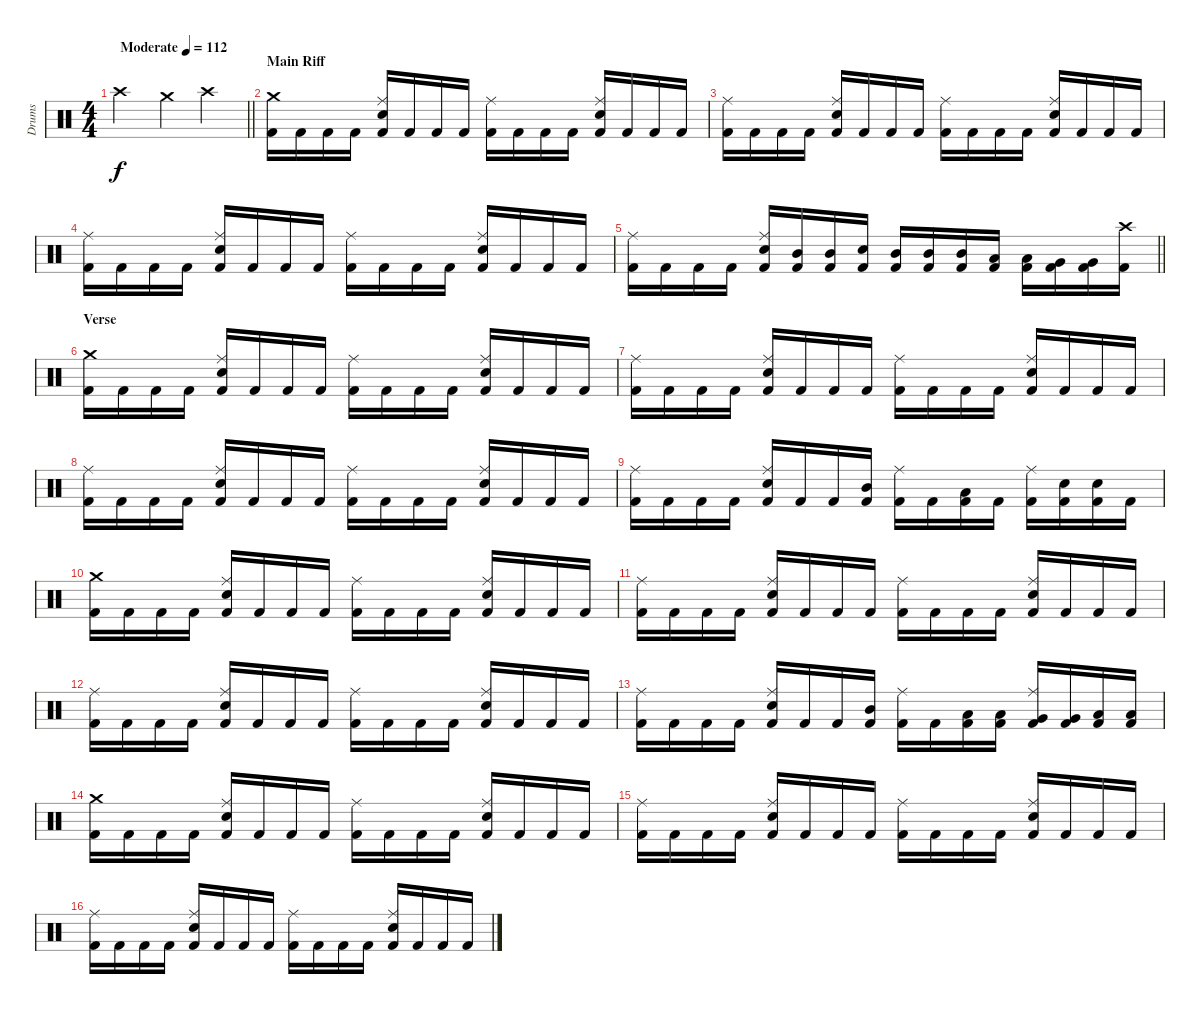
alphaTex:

\track ("Drums" "Drums") {instrument percussion}
\staff {score}
\articulation defaults
\ts (4 4)
\tempo (112 "Moderate")
\clef neutral
\barLineRight lightlight
\ks c "Crash high (hit)".2{dy f} "Crash medium (hit)".4 "Crash high (hit)".4
|
\section ("" "Main Riff")
("Crash medium (hit)" "Kick (hit) 2").16 "Kick (hit) 2".16 "Kick (hit) 2".16 "Kick (hit) 2".16 ("Ride (middle)" "Electric Snare (hit)" "Kick (hit) 2").16 "Kick (hit) 2".16 "Kick (hit) 2".16 "Kick (hit) 2".16 ("Ride (middle)" "Kick (hit) 2").16 "Kick (hit) 2".16 "Kick (hit) 2".16 "Kick (hit) 2".16 ("Ride (middle)" "Electric Snare (hit)" "Kick (hit) 2").16 "Kick (hit) 2".16 "Kick (hit) 2".16 "Kick (hit) 2".16 |
("Ride (middle)" "Kick (hit) 2").16 "Kick (hit) 2".16 "Kick (hit) 2".16 "Kick (hit) 2".16 ("Ride (middle)" "Electric Snare (hit)" "Kick (hit) 2").16 "Kick (hit) 2".16 "Kick (hit) 2".16 "Kick (hit) 2".16 ("Ride (middle)" "Kick (hit) 2").16 "Kick (hit) 2".16 "Kick (hit) 2".16 "Kick (hit) 2".16 ("Ride (middle)" "Electric Snare (hit)" "Kick (hit) 2").16 "Kick (hit) 2".16 "Kick (hit) 2".16 "Kick (hit) 2".16 |
("Ride (middle)" "Kick (hit) 2").16 "Kick (hit) 2".16 "Kick (hit) 2".16 "Kick (hit) 2".16 ("Ride (middle)" "Electric Snare (hit)" "Kick (hit) 2").16 "Kick (hit) 2".16 "Kick (hit) 2".16 "Kick (hit) 2".16 ("Ride (middle)" "Kick (hit) 2").16 "Kick (hit) 2".16 "Kick (hit) 2".16 "Kick (hit) 2".16 ("Ride (middle)" "Electric Snare (hit)" "Kick (hit) 2").16 "Kick (hit) 2".16 "Kick (hit) 2".16 "Kick (hit) 2".16 |
\barLineRight lightlight
("Ride (middle)" "Kick (hit) 2").16 "Kick (hit) 2".16 "Kick (hit) 2".16 "Kick (hit) 2".16 ("Ride (middle)" "Electric Snare (hit)" "Kick (hit) 2").16 ("Mid Tom (hit)" "Kick (hit) 2").16 ("Mid Tom (hit)" "Kick (hit) 2").16 ("Electric Snare (hit)" "Kick (hit) 2").16 ("Mid Tom (hit)" "Kick (hit) 2").16 ("Mid Tom (hit)" "Kick (hit) 2").16 ("Mid Tom (hit)" "Kick (hit) 2").16 ("Low Tom (hit)" "Kick (hit) 2").16 ("Low Tom (hit)" "Kick (hit) 2").16 ("Very Low Tom (hit)" "Kick (hit) 2").16 ("Very Low Tom (hit)" "Kick (hit) 2").16 ("Crash high (hit)" "Kick (hit) 2").16 |
\section ("" "Verse")
("Crash medium (hit)" "Kick (hit) 2").16 "Kick (hit) 2".16 "Kick (hit) 2".16 "Kick (hit) 2".16 ("Ride (middle)" "Electric Snare (hit)" "Kick (hit) 2").16 "Kick (hit) 2".16 "Kick (hit) 2".16 "Kick (hit) 2".16 ("Ride (middle)" "Kick (hit) 2").16 "Kick (hit) 2".16 "Kick (hit) 2".16 "Kick (hit) 2".16 ("Ride (middle)" "Electric Snare (hit)" "Kick (hit) 2").16 "Kick (hit) 2".16 "Kick (hit) 2".16 "Kick (hit) 2".16 |
("Ride (middle)" "Kick (hit) 2").16 "Kick (hit) 2".16 "Kick (hit) 2".16 "Kick (hit) 2".16 ("Ride (middle)" "Electric Snare (hit)" "Kick (hit) 2").16 "Kick (hit) 2".16 "Kick (hit) 2".16 "Kick (hit) 2".16 ("Ride (middle)" "Kick (hit) 2").16 "Kick (hit) 2".16 "Kick (hit) 2".16 "Kick (hit) 2".16 ("Ride (middle)" "Electric Snare (hit)" "Kick (hit) 2").16 "Kick (hit) 2".16 "Kick (hit) 2".16 "Kick (hit) 2".16 |
("Ride (middle)" "Kick (hit) 2").16 "Kick (hit) 2".16 "Kick (hit) 2".16 "Kick (hit) 2".16 ("Ride (middle)" "Electric Snare (hit)" "Kick (hit) 2").16 "Kick (hit) 2".16 "Kick (hit) 2".16 "Kick (hit) 2".16 ("Ride (middle)" "Kick (hit) 2").16 "Kick (hit) 2".16 "Kick (hit) 2".16 "Kick (hit) 2".16 ("Ride (middle)" "Electric Snare (hit)" "Kick (hit) 2").16 "Kick (hit) 2".16 "Kick (hit) 2".16 "Kick (hit) 2".16 |
("Ride (middle)" "Kick (hit) 2").16 "Kick (hit) 2".16 "Kick (hit) 2".16 "Kick (hit) 2".16 ("Ride (middle)" "Electric Snare (hit)" "Kick (hit) 2").16 "Kick (hit) 2".16 "Kick (hit) 2".16 ("Mid Tom (hit)" "Kick (hit) 2").16 ("Ride (middle)" "Kick (hit) 2").16 "Kick (hit) 2".16 ("Low Tom (hit)" "Kick (hit) 2").16 "Kick (hit) 2".16 ("Ride (middle)" "Kick (hit) 2").16 ("Electric Snare (hit)" "Kick (hit) 2").16 ("Electric Snare (hit)" "Kick (hit) 2").16 "Kick (hit) 2".16 |
("Crash medium (hit)" "Kick (hit) 2").16 "Kick (hit) 2".16 "Kick (hit) 2".16 "Kick (hit) 2".16 ("Ride (middle)" "Electric Snare (hit)" "Kick (hit) 2").16 "Kick (hit) 2".16 "Kick (hit) 2".16 "Kick (hit) 2".16 ("Ride (middle)" "Kick (hit) 2").16 "Kick (hit) 2".16 "Kick (hit) 2".16 "Kick (hit) 2".16 ("Ride (middle)" "Electric Snare (hit)" "Kick (hit) 2").16 "Kick (hit) 2".16 "Kick (hit) 2".16 "Kick (hit) 2".16 |
("Ride (middle)" "Kick (hit) 2").16 "Kick (hit) 2".16 "Kick (hit) 2".16 "Kick (hit) 2".16 ("Ride (middle)" "Electric Snare (hit)" "Kick (hit) 2").16 "Kick (hit) 2".16 "Kick (hit) 2".16 "Kick (hit) 2".16 ("Ride (middle)" "Kick (hit) 2").16 "Kick (hit) 2".16 "Kick (hit) 2".16 "Kick (hit) 2".16 ("Ride (middle)" "Electric Snare (hit)" "Kick (hit) 2").16 "Kick (hit) 2".16 "Kick (hit) 2".16 "Kick (hit) 2".16 |
("Ride (middle)" "Kick (hit) 2").16 "Kick (hit) 2".16 "Kick (hit) 2".16 "Kick (hit) 2".16 ("Ride (middle)" "Electric Snare (hit)" "Kick (hit) 2").16 "Kick (hit) 2".16 "Kick (hit) 2".16 "Kick (hit) 2".16 ("Ride (middle)" "Kick (hit) 2").16 "Kick (hit) 2".16 "Kick (hit) 2".16 "Kick (hit) 2".16 ("Ride (middle)" "Electric Snare (hit)" "Kick (hit) 2").16 "Kick (hit) 2".16 "Kick (hit) 2".16 "Kick (hit) 2".16 |
("Ride (middle)" "Kick (hit) 2").16 "Kick (hit) 2".16 "Kick (hit) 2".16 "Kick (hit) 2".16 ("Ride (middle)" "Electric Snare (hit)" "Kick (hit) 2").16 "Kick (hit) 2".16 "Kick (hit) 2".16 ("Mid Tom (hit)" "Kick (hit) 2").16 ("Ride (middle)" "Kick (hit) 2").16 "Kick (hit) 2".16 ("Low Tom (hit)" "Kick (hit) 2").16 ("Low Tom (hit)" "Kick (hit) 2").16 ("Ride (middle)" "Very Low Tom (hit)" "Kick (hit) 2").16 ("Very Low Tom (hit)" "Kick (hit) 2").16 ("Low Floor Tom (hit)" "Kick (hit) 2").16 ("Low Floor Tom (hit)" "Kick (hit) 2").16 |
("Crash medium (hit)" "Kick (hit) 2").16 "Kick (hit) 2".16 "Kick (hit) 2".16 "Kick (hit) 2".16 ("Ride (middle)" "Electric Snare (hit)" "Kick (hit) 2").16 "Kick (hit) 2".16 "Kick (hit) 2".16 "Kick (hit) 2".16 ("Ride (middle)" "Kick (hit) 2").16 "Kick (hit) 2".16 "Kick (hit) 2".16 "Kick (hit) 2".16 ("Ride (middle)" "Electric Snare (hit)" "Kick (hit) 2").16 "Kick (hit) 2".16 "Kick (hit) 2".16 "Kick (hit) 2".16 |
("Ride (middle)" "Kick (hit) 2").16 "Kick (hit) 2".16 "Kick (hit) 2".16 "Kick (hit) 2".16 ("Ride (middle)" "Electric Snare (hit)" "Kick (hit) 2").16 "Kick (hit) 2".16 "Kick (hit) 2".16 "Kick (hit) 2".16 ("Ride (middle)" "Kick (hit) 2").16 "Kick (hit) 2".16 "Kick (hit) 2".16 "Kick (hit) 2".16 ("Ride (middle)" "Electric Snare (hit)" "Kick (hit) 2").16 "Kick (hit) 2".16 "Kick (hit) 2".16 "Kick (hit) 2".16 |
("Ride (middle)" "Kick (hit) 2").16 "Kick (hit) 2".16 "Kick (hit) 2".16 "Kick (hit) 2".16 ("Ride (middle)" "Electric Snare (hit)" "Kick (hit) 2").16 "Kick (hit) 2".16 "Kick (hit) 2".16 "Kick (hit) 2".16 ("Ride (middle)" "Kick (hit) 2").16 "Kick (hit) 2".16 "Kick (hit) 2".16 "Kick (hit) 2".16 ("Ride (middle)" "Electric Snare (hit)" "Kick (hit) 2").16 "Kick (hit) 2".16 "Kick (hit) 2".16 "Kick (hit) 2".16
